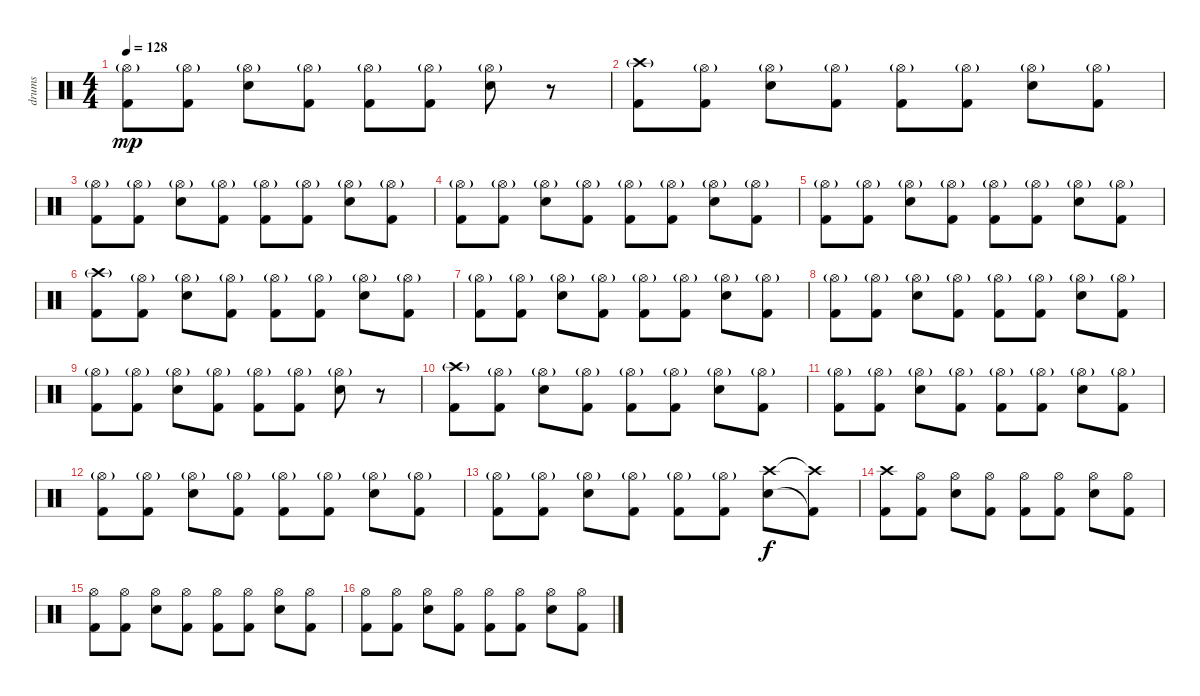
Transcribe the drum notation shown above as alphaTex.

\track ("drums" "drums") {instrument percussion}
\staff {score}
\articulation defaults
\ts (4 4)
\tempo 128
\clef neutral
\ks c
("Hi-Hat (open)"{g} "Kick (hit) 2").8{dy mp} ("Hi-Hat (open)"{g} "Kick (hit) 2").8 ("Hi-Hat (open)"{g} "Electric Snare (hit)").8 ("Hi-Hat (open)"{g} "Kick (hit) 2").8 ("Hi-Hat (open)"{g} "Kick (hit) 2").8 ("Hi-Hat (open)"{g} "Kick (hit) 2").8 ("Hi-Hat (open)"{g} "Electric Snare (hit)").8 r.8 |
("Crash high (hit)"{g} "Kick (hit) 2").8 ("Hi-Hat (open)"{g} "Kick (hit) 2").8 ("Hi-Hat (open)"{g} "Electric Snare (hit)").8 ("Hi-Hat (open)"{g} "Kick (hit) 2").8 ("Hi-Hat (open)"{g} "Kick (hit) 2").8 ("Hi-Hat (open)"{g} "Kick (hit) 2").8 ("Hi-Hat (open)"{g} "Electric Snare (hit)").8 ("Hi-Hat (open)"{g} "Kick (hit) 2").8 |
("Hi-Hat (open)"{g} "Kick (hit) 2").8 ("Hi-Hat (open)"{g} "Kick (hit) 2").8 ("Hi-Hat (open)"{g} "Electric Snare (hit)").8 ("Hi-Hat (open)"{g} "Kick (hit) 2").8 ("Hi-Hat (open)"{g} "Kick (hit) 2").8 ("Hi-Hat (open)"{g} "Kick (hit) 2").8 ("Hi-Hat (open)"{g} "Electric Snare (hit)").8 ("Hi-Hat (open)"{g} "Kick (hit) 2").8 |
("Hi-Hat (open)"{g} "Kick (hit) 2").8 ("Hi-Hat (open)"{g} "Kick (hit) 2").8 ("Hi-Hat (open)"{g} "Electric Snare (hit)").8 ("Hi-Hat (open)"{g} "Kick (hit) 2").8 ("Hi-Hat (open)"{g} "Kick (hit) 2").8 ("Hi-Hat (open)"{g} "Kick (hit) 2").8 ("Hi-Hat (open)"{g} "Electric Snare (hit)").8 ("Hi-Hat (open)"{g} "Kick (hit) 2").8 |
("Hi-Hat (open)"{g} "Kick (hit) 2").8 ("Hi-Hat (open)"{g} "Kick (hit) 2").8 ("Hi-Hat (open)"{g} "Electric Snare (hit)").8 ("Hi-Hat (open)"{g} "Kick (hit) 2").8 ("Hi-Hat (open)"{g} "Kick (hit) 2").8 ("Hi-Hat (open)"{g} "Kick (hit) 2").8 ("Hi-Hat (open)"{g} "Electric Snare (hit)").8 ("Hi-Hat (open)"{g} "Kick (hit) 2").8 |
("Crash high (hit)"{g} "Kick (hit) 2").8 ("Hi-Hat (open)"{g} "Kick (hit) 2").8 ("Hi-Hat (open)"{g} "Electric Snare (hit)").8 ("Hi-Hat (open)"{g} "Kick (hit) 2").8 ("Hi-Hat (open)"{g} "Kick (hit) 2").8 ("Hi-Hat (open)"{g} "Kick (hit) 2").8 ("Hi-Hat (open)"{g} "Electric Snare (hit)").8 ("Hi-Hat (open)"{g} "Kick (hit) 2").8 |
("Hi-Hat (open)"{g} "Kick (hit) 2").8 ("Hi-Hat (open)"{g} "Kick (hit) 2").8 ("Hi-Hat (open)"{g} "Electric Snare (hit)").8 ("Hi-Hat (open)"{g} "Kick (hit) 2").8 ("Hi-Hat (open)"{g} "Kick (hit) 2").8 ("Hi-Hat (open)"{g} "Kick (hit) 2").8 ("Hi-Hat (open)"{g} "Electric Snare (hit)").8 ("Hi-Hat (open)"{g} "Kick (hit) 2").8 |
("Hi-Hat (open)"{g} "Kick (hit) 2").8 ("Hi-Hat (open)"{g} "Kick (hit) 2").8 ("Hi-Hat (open)"{g} "Electric Snare (hit)").8 ("Hi-Hat (open)"{g} "Kick (hit) 2").8 ("Hi-Hat (open)"{g} "Kick (hit) 2").8 ("Hi-Hat (open)"{g} "Kick (hit) 2").8 ("Hi-Hat (open)"{g} "Electric Snare (hit)").8 ("Hi-Hat (open)"{g} "Kick (hit) 2").8 |
("Hi-Hat (open)"{g} "Kick (hit) 2").8 ("Hi-Hat (open)"{g} "Kick (hit) 2").8 ("Hi-Hat (open)"{g} "Electric Snare (hit)").8 ("Hi-Hat (open)"{g} "Kick (hit) 2").8 ("Hi-Hat (open)"{g} "Kick (hit) 2").8 ("Hi-Hat (open)"{g} "Kick (hit) 2").8 ("Hi-Hat (open)"{g} "Electric Snare (hit)").8 r.8 |
("Crash high (hit)"{g} "Kick (hit) 2").8 ("Hi-Hat (open)"{g} "Kick (hit) 2").8 ("Hi-Hat (open)"{g} "Electric Snare (hit)").8 ("Hi-Hat (open)"{g} "Kick (hit) 2").8 ("Hi-Hat (open)"{g} "Kick (hit) 2").8 ("Hi-Hat (open)"{g} "Kick (hit) 2").8 ("Hi-Hat (open)"{g} "Electric Snare (hit)").8 ("Hi-Hat (open)"{g} "Kick (hit) 2").8 |
("Hi-Hat (open)"{g} "Kick (hit) 2").8 ("Hi-Hat (open)"{g} "Kick (hit) 2").8 ("Hi-Hat (open)"{g} "Electric Snare (hit)").8 ("Hi-Hat (open)"{g} "Kick (hit) 2").8 ("Hi-Hat (open)"{g} "Kick (hit) 2").8 ("Hi-Hat (open)"{g} "Kick (hit) 2").8 ("Hi-Hat (open)"{g} "Electric Snare (hit)").8 ("Hi-Hat (open)"{g} "Kick (hit) 2").8 |
("Hi-Hat (open)"{g} "Kick (hit) 2").8 ("Hi-Hat (open)"{g} "Kick (hit) 2").8 ("Hi-Hat (open)"{g} "Electric Snare (hit)").8 ("Hi-Hat (open)"{g} "Kick (hit) 2").8 ("Hi-Hat (open)"{g} "Kick (hit) 2").8 ("Hi-Hat (open)"{g} "Kick (hit) 2").8 ("Hi-Hat (open)"{g} "Electric Snare (hit)").8 ("Hi-Hat (open)"{g} "Kick (hit) 2").8 |
("Hi-Hat (open)"{g} "Kick (hit) 2").8 ("Hi-Hat (open)"{g} "Kick (hit) 2").8 ("Hi-Hat (open)"{g} "Electric Snare (hit)").8 ("Hi-Hat (open)"{g} "Kick (hit) 2").8 ("Hi-Hat (open)"{g} "Kick (hit) 2").8 ("Hi-Hat (open)"{g} "Kick (hit) 2").8 ("Crash high (hit)" "Electric Snare (hit)").8{dy f} ("Crash high (hit)"{t} "Kick (hit) 2"{t}).8 |
("Crash high (hit)" "Kick (hit) 2").8 ("Hi-Hat (open)" "Kick (hit) 2").8 ("Hi-Hat (open)" "Electric Snare (hit)").8 ("Hi-Hat (open)" "Kick (hit) 2").8 ("Hi-Hat (open)" "Kick (hit) 2").8 ("Hi-Hat (open)" "Kick (hit) 2").8 ("Hi-Hat (open)" "Electric Snare (hit)").8 ("Hi-Hat (open)" "Kick (hit) 2").8 |
("Hi-Hat (open)" "Kick (hit) 2").8 ("Hi-Hat (open)" "Kick (hit) 2").8 ("Hi-Hat (open)" "Electric Snare (hit)").8 ("Hi-Hat (open)" "Kick (hit) 2").8 ("Hi-Hat (open)" "Kick (hit) 2").8 ("Hi-Hat (open)" "Kick (hit) 2").8 ("Hi-Hat (open)" "Electric Snare (hit)").8 ("Hi-Hat (open)" "Kick (hit) 2").8 |
("Hi-Hat (open)" "Kick (hit) 2").8 ("Hi-Hat (open)" "Kick (hit) 2").8 ("Hi-Hat (open)" "Electric Snare (hit)").8 ("Hi-Hat (open)" "Kick (hit) 2").8 ("Hi-Hat (open)" "Kick (hit) 2").8 ("Hi-Hat (open)" "Kick (hit) 2").8 ("Hi-Hat (open)" "Electric Snare (hit)").8 ("Hi-Hat (open)" "Kick (hit) 2").8
